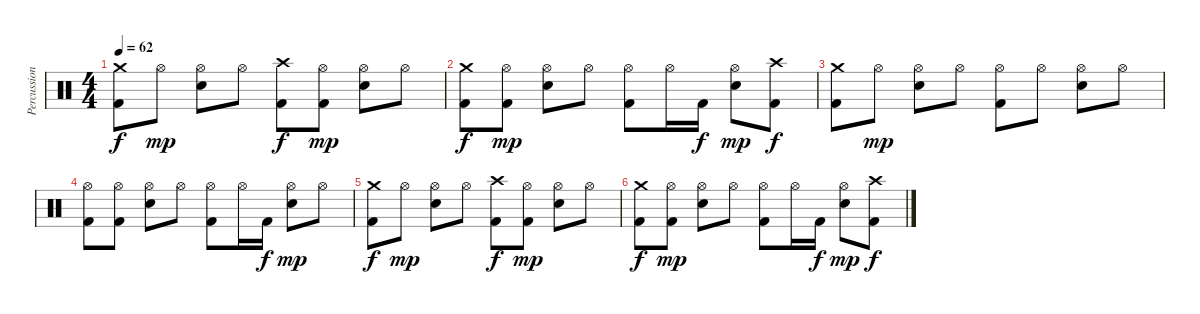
\track ("Percussions" "Percussion") {instrument percussion}
\staff {score}
\articulation defaults
\ts (4 4)
\tempo 62
\clef neutral
\ks c
("Crash medium (hit)" "Kick (hit) 2").8{dy f} "Hi-Hat (open)".8{dy mp} ("Hi-Hat (open)" "Snare (hit) 2").8 "Hi-Hat (open)".8 ("Crash high (hit)" "Kick (hit) 2").8{dy f} ("Hi-Hat (open)" "Kick (hit) 2").8{dy mp} ("Hi-Hat (open)" "Snare (hit) 2").8 "Hi-Hat (open)".8 |
("Crash medium (hit)" "Kick (hit) 2").8{dy f} ("Hi-Hat (open)" "Kick (hit) 2").8{dy mp} ("Hi-Hat (open)" "Snare (hit) 2").8 "Hi-Hat (open)".8 ("Hi-Hat (open)" "Kick (hit) 2").8 "Hi-Hat (open)".16 "Kick (hit) 2".16{dy f} ("Hi-Hat (open)" "Snare (hit) 2").8{dy mp} ("Crash high (hit)" "Kick (hit) 2").8{dy f} |
("Crash medium (hit)" "Kick (hit) 2").8{volume 6} "Hi-Hat (open)".8{dy mp} ("Hi-Hat (open)" "Snare (hit) 2").8 "Hi-Hat (open)".8 ("Hi-Hat (open)" "Kick (hit) 2").8 "Hi-Hat (open)".8 ("Hi-Hat (open)" "Snare (hit) 2").8 "Hi-Hat (open)".8 |
("Hi-Hat (open)" "Kick (hit) 2").8 ("Hi-Hat (open)" "Kick (hit) 2").8 ("Hi-Hat (open)" "Snare (hit) 2").8 "Hi-Hat (open)".8 ("Hi-Hat (open)" "Kick (hit) 2").8 "Hi-Hat (open)".16 "Kick (hit) 2".16{dy f} ("Hi-Hat (open)" "Snare (hit) 2").8{dy mp} "Hi-Hat (open)".8 |
("Crash medium (hit)" "Kick (hit) 2").8{dy f volume 0} "Hi-Hat (open)".8{dy mp} ("Hi-Hat (open)" "Snare (hit) 2").8 "Hi-Hat (open)".8 ("Crash high (hit)" "Kick (hit) 2").8{dy f} ("Hi-Hat (open)" "Kick (hit) 2").8{dy mp} ("Hi-Hat (open)" "Snare (hit) 2").8 "Hi-Hat (open)".8 |
("Crash medium (hit)" "Kick (hit) 2").8{dy f} ("Hi-Hat (open)" "Kick (hit) 2").8{dy mp} ("Hi-Hat (open)" "Snare (hit) 2").8 "Hi-Hat (open)".8 ("Hi-Hat (open)" "Kick (hit) 2").8 "Hi-Hat (open)".16 "Kick (hit) 2".16{dy f} ("Hi-Hat (open)" "Snare (hit) 2").8{dy mp} ("Crash high (hit)" "Kick (hit) 2").8{dy f}
